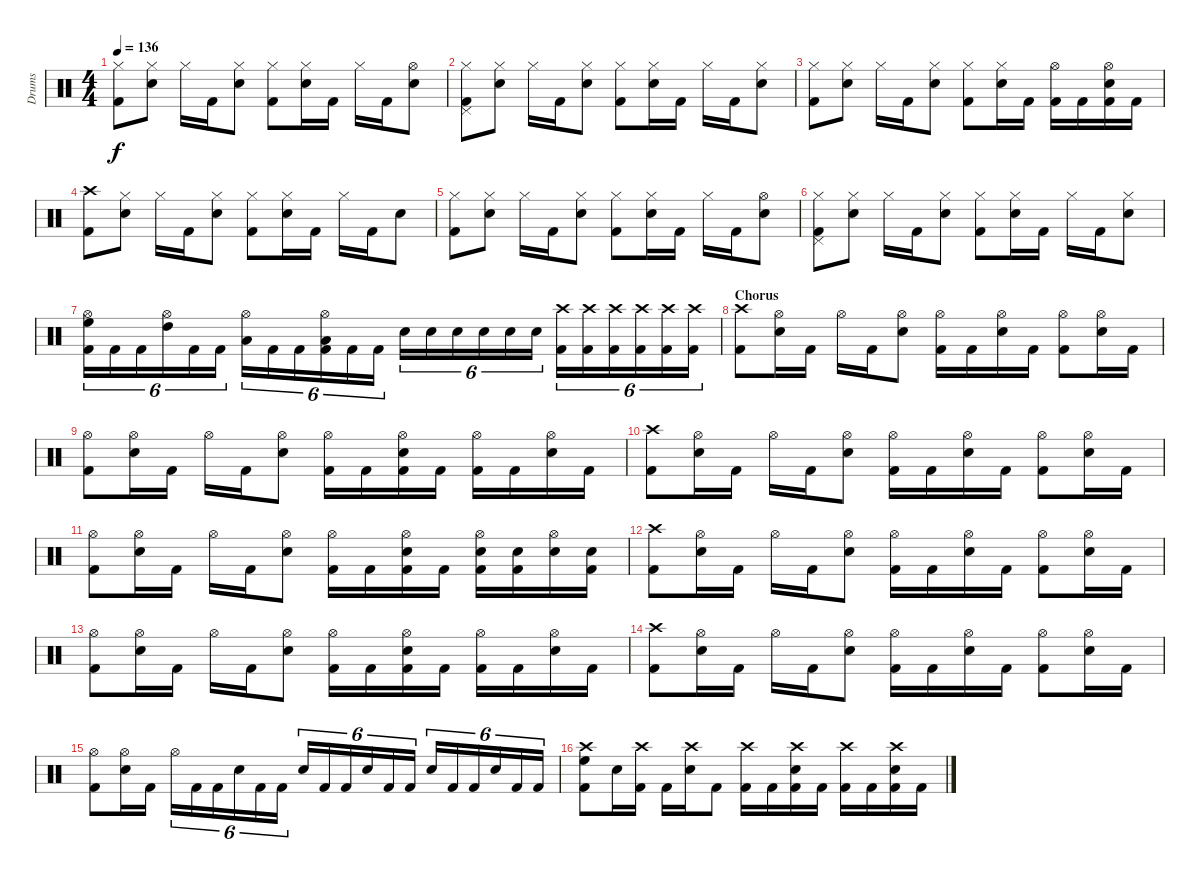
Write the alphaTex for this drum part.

\track ("Drums" "Drums") {instrument percussion}
\staff {score}
\articulation defaults
\ts (4 4)
\tempo 136
\clef neutral
\ks c
("Hi-Hat (closed)" "Kick (hit) 2").8{dy f} ("Hi-Hat (closed)" "Snare (hit) 2").8 "Hi-Hat (closed)".16 "Kick (hit) 2".16 ("Hi-Hat (closed)" "Snare (hit) 2").8 ("Hi-Hat (closed)" "Kick (hit) 2").8 ("Hi-Hat (closed)" "Snare (hit) 2").16 "Kick (hit) 2".16 "Hi-Hat (closed)".16 "Kick (hit) 2".16 ("Hi-Hat (open)" "Snare (hit) 2").8 |
("Hi-Hat (closed)" "Pedal Hi-Hat (hit)" "Kick (hit) 2").8 ("Hi-Hat (closed)" "Snare (hit) 2").8 "Hi-Hat (closed)".16 "Kick (hit) 2".16 ("Hi-Hat (closed)" "Snare (hit) 2").8 ("Hi-Hat (closed)" "Kick (hit) 2").8 ("Hi-Hat (closed)" "Snare (hit) 2").16 "Kick (hit) 2".16 "Hi-Hat (closed)".16 "Kick (hit) 2".16 ("Hi-Hat (closed)" "Snare (hit) 2").8 |
("Hi-Hat (closed)" "Kick (hit) 2").8 ("Hi-Hat (closed)" "Snare (hit) 2").8 "Hi-Hat (closed)".16 "Kick (hit) 2".16 ("Hi-Hat (closed)" "Snare (hit) 2").8 ("Hi-Hat (closed)" "Kick (hit) 2").8 ("Hi-Hat (closed)" "Snare (hit) 2").16 "Kick (hit) 2".16 ("Hi-Hat (open)" "Kick (hit) 2").16 "Kick (hit) 2".16 ("Hi-Hat (open)" "Snare (hit) 2" "Kick (hit) 2").16 "Kick (hit) 2".16 |
("Crash high (hit)" "Kick (hit) 2").8 ("Hi-Hat (closed)" "Snare (hit) 2").8 "Hi-Hat (closed)".16 "Kick (hit) 2".16 ("Hi-Hat (closed)" "Snare (hit) 2").8 ("Hi-Hat (closed)" "Kick (hit) 2").8 ("Hi-Hat (closed)" "Snare (hit) 2").16 "Kick (hit) 2".16 "Hi-Hat (closed)".16 "Kick (hit) 2".16 "Snare (hit) 2".8 |
("Hi-Hat (closed)" "Kick (hit) 2").8 ("Hi-Hat (closed)" "Snare (hit) 2").8 "Hi-Hat (closed)".16 "Kick (hit) 2".16 ("Hi-Hat (closed)" "Snare (hit) 2").8 ("Hi-Hat (closed)" "Kick (hit) 2").8 ("Hi-Hat (closed)" "Snare (hit) 2").16 "Kick (hit) 2".16 "Hi-Hat (closed)".16 "Kick (hit) 2".16 ("Hi-Hat (open)" "Snare (hit) 2").8 |
("Hi-Hat (closed)" "Pedal Hi-Hat (hit)" "Kick (hit) 2").8 ("Hi-Hat (closed)" "Snare (hit) 2").8 "Hi-Hat (closed)".16 "Kick (hit) 2".16 ("Hi-Hat (closed)" "Snare (hit) 2").8 ("Hi-Hat (closed)" "Kick (hit) 2").8 ("Hi-Hat (closed)" "Snare (hit) 2").16 "Kick (hit) 2".16 "Hi-Hat (closed)".16 "Kick (hit) 2".16 ("Hi-Hat (closed)" "Snare (hit) 2").8 |
("Hi-Hat (open)" "High Floor Tom (hit)" "Kick (hit) 2").16{tu (6 4)} "Kick (hit) 2".16{tu (6 4)} "Kick (hit) 2".16{tu (6 4)} ("Hi-Hat (open)" "High Tom (hit)").16{tu (6 4)} "Kick (hit) 2".16{tu (6 4)} "Kick (hit) 2".16{tu (6 4)} ("Hi-Hat (open)" "Low Tom (hit)").16{tu (6 4)} "Kick (hit) 2".16{tu (6 4)} "Kick (hit) 2".16{tu (6 4)} ("Hi-Hat (open)" "Low Floor Tom (hit)" "Kick (hit) 2").16{tu (6 4)} "Kick (hit) 2".16{tu (6 4)} "Kick (hit) 2".16{tu (6 4)} "Snare (hit) 2".16{tu (6 4)} "Snare (hit) 2".16{tu (6 4)} "Snare (hit) 2".16{tu (6 4)} "Snare (hit) 2".16{tu (6 4)} "Snare (hit) 2".16{tu (6 4)} "Snare (hit) 2".16{tu (6 4)} ("Crash high (hit)" "Kick (hit) 2").16{tu (6 4)} ("Crash high (hit)" "Kick (hit) 2").16{tu (6 4)} ("Crash high (hit)" "Kick (hit) 2").16{tu (6 4)} ("Crash high (hit)" "Kick (hit) 2").16{tu (6 4)} ("Crash high (hit)" "Kick (hit) 2").16{tu (6 4)} ("Crash high (hit)" "Kick (hit) 2").16{tu (6 4)} |
\section ("" "Chorus")
("Crash high (hit)" "Kick (hit) 2").8 ("Hi-Hat (open)" "Snare (hit) 2").16 "Kick (hit) 2".16 "Hi-Hat (open)".16 "Kick (hit) 2".16 ("Hi-Hat (open)" "Snare (hit) 2").8 ("Hi-Hat (open)" "Kick (hit) 2").16 "Kick (hit) 2".16 ("Hi-Hat (open)" "Snare (hit) 2").16 "Kick (hit) 2".16 ("Hi-Hat (open)" "Kick (hit) 2").8 ("Hi-Hat (open)" "Snare (hit) 2").16 "Kick (hit) 2".16 |
("Hi-Hat (open)" "Kick (hit) 2").8 ("Hi-Hat (open)" "Snare (hit) 2").16 "Kick (hit) 2".16 "Hi-Hat (open)".16 "Kick (hit) 2".16 ("Hi-Hat (open)" "Snare (hit) 2").8 ("Hi-Hat (open)" "Kick (hit) 2").16 "Kick (hit) 2".16 ("Hi-Hat (open)" "Snare (hit) 2" "Kick (hit) 2").16 "Kick (hit) 2".16 ("Hi-Hat (open)" "Kick (hit) 2").16 "Kick (hit) 2".16 ("Hi-Hat (open)" "Snare (hit) 2").16 "Kick (hit) 2".16 |
("Crash high (hit)" "Kick (hit) 2").8 ("Hi-Hat (open)" "Snare (hit) 2").16 "Kick (hit) 2".16 "Hi-Hat (open)".16 "Kick (hit) 2".16 ("Hi-Hat (open)" "Snare (hit) 2").8 ("Hi-Hat (open)" "Kick (hit) 2").16 "Kick (hit) 2".16 ("Hi-Hat (open)" "Snare (hit) 2").16 "Kick (hit) 2".16 ("Hi-Hat (open)" "Kick (hit) 2").8 ("Hi-Hat (open)" "Snare (hit) 2").16 "Kick (hit) 2".16 |
("Hi-Hat (open)" "Kick (hit) 2").8 ("Hi-Hat (open)" "Snare (hit) 2").16 "Kick (hit) 2".16 "Hi-Hat (open)".16 "Kick (hit) 2".16 ("Hi-Hat (open)" "Snare (hit) 2").8 ("Hi-Hat (open)" "Kick (hit) 2").16 "Kick (hit) 2".16 ("Hi-Hat (open)" "Snare (hit) 2" "Kick (hit) 2").16 "Kick (hit) 2".16 ("Hi-Hat (open)" "Snare (hit) 2" "Kick (hit) 2").16 ("Snare (hit) 2" "Kick (hit) 2").16 ("Hi-Hat (open)" "Snare (hit) 2").16 ("Snare (hit) 2" "Kick (hit) 2").16 |
("Crash high (hit)" "Kick (hit) 2").8 ("Hi-Hat (open)" "Snare (hit) 2").16 "Kick (hit) 2".16 "Hi-Hat (open)".16 "Kick (hit) 2".16 ("Hi-Hat (open)" "Snare (hit) 2").8 ("Hi-Hat (open)" "Kick (hit) 2").16 "Kick (hit) 2".16 ("Hi-Hat (open)" "Snare (hit) 2").16 "Kick (hit) 2".16 ("Hi-Hat (open)" "Kick (hit) 2").8 ("Hi-Hat (open)" "Snare (hit) 2").16 "Kick (hit) 2".16 |
("Hi-Hat (open)" "Kick (hit) 2").8 ("Hi-Hat (open)" "Snare (hit) 2").16 "Kick (hit) 2".16 "Hi-Hat (open)".16 "Kick (hit) 2".16 ("Hi-Hat (open)" "Snare (hit) 2").8 ("Hi-Hat (open)" "Kick (hit) 2").16 "Kick (hit) 2".16 ("Hi-Hat (open)" "Snare (hit) 2" "Kick (hit) 2").16 "Kick (hit) 2".16 ("Hi-Hat (open)" "Kick (hit) 2").16 "Kick (hit) 2".16 ("Hi-Hat (open)" "Snare (hit) 2").16 "Kick (hit) 2".16 |
("Crash high (hit)" "Kick (hit) 2").8 ("Hi-Hat (open)" "Snare (hit) 2").16 "Kick (hit) 2".16 "Hi-Hat (open)".16 "Kick (hit) 2".16 ("Hi-Hat (open)" "Snare (hit) 2").8 ("Hi-Hat (open)" "Kick (hit) 2").16 "Kick (hit) 2".16 ("Hi-Hat (open)" "Snare (hit) 2").16 "Kick (hit) 2".16 ("Hi-Hat (open)" "Kick (hit) 2").8 ("Hi-Hat (open)" "Snare (hit) 2").16 "Kick (hit) 2".16 |
("Hi-Hat (open)" "Kick (hit) 2").8 ("Hi-Hat (open)" "Snare (hit) 2").16 "Kick (hit) 2".16 "Hi-Hat (open)".16{tu (6 4)} "Kick (hit) 2".16{tu (6 4)} "Kick (hit) 2".16{tu (6 4)} "Snare (hit) 2".16{tu (6 4)} "Kick (hit) 2".16{tu (6 4)} "Kick (hit) 2".16{tu (6 4)} "Snare (hit) 2".16{tu (6 4)} "Kick (hit) 2".16{tu (6 4)} "Kick (hit) 2".16{tu (6 4)} "Snare (hit) 2".16{tu (6 4)} "Kick (hit) 2".16{tu (6 4)} "Kick (hit) 2".16{tu (6 4)} "Snare (hit) 2".16{tu (6 4)} "Kick (hit) 2".16{tu (6 4)} "Kick (hit) 2".16{tu (6 4)} "Snare (hit) 2".16{tu (6 4)} "Kick (hit) 2".16{tu (6 4)} "Kick (hit) 2".16{tu (6 4)} |
("Crash high (hit)" "High Floor Tom (hit)" "Kick (hit) 2").8 "Snare (hit) 2".16 ("Crash high (hit)" "Kick (hit) 2").16 "Kick (hit) 2".16 ("Crash high (hit)" "Snare (hit) 2").16 "Kick (hit) 2".8 ("Crash high (hit)" "Kick (hit) 2").16 "Kick (hit) 2".16 ("Crash high (hit)" "Snare (hit) 2" "Kick (hit) 2").16 "Kick (hit) 2".16 ("Crash high (hit)" "Kick (hit) 2").16 "Kick (hit) 2".16 ("Crash high (hit)" "Snare (hit) 2" "Kick (hit) 2").16 "Kick (hit) 2".16
